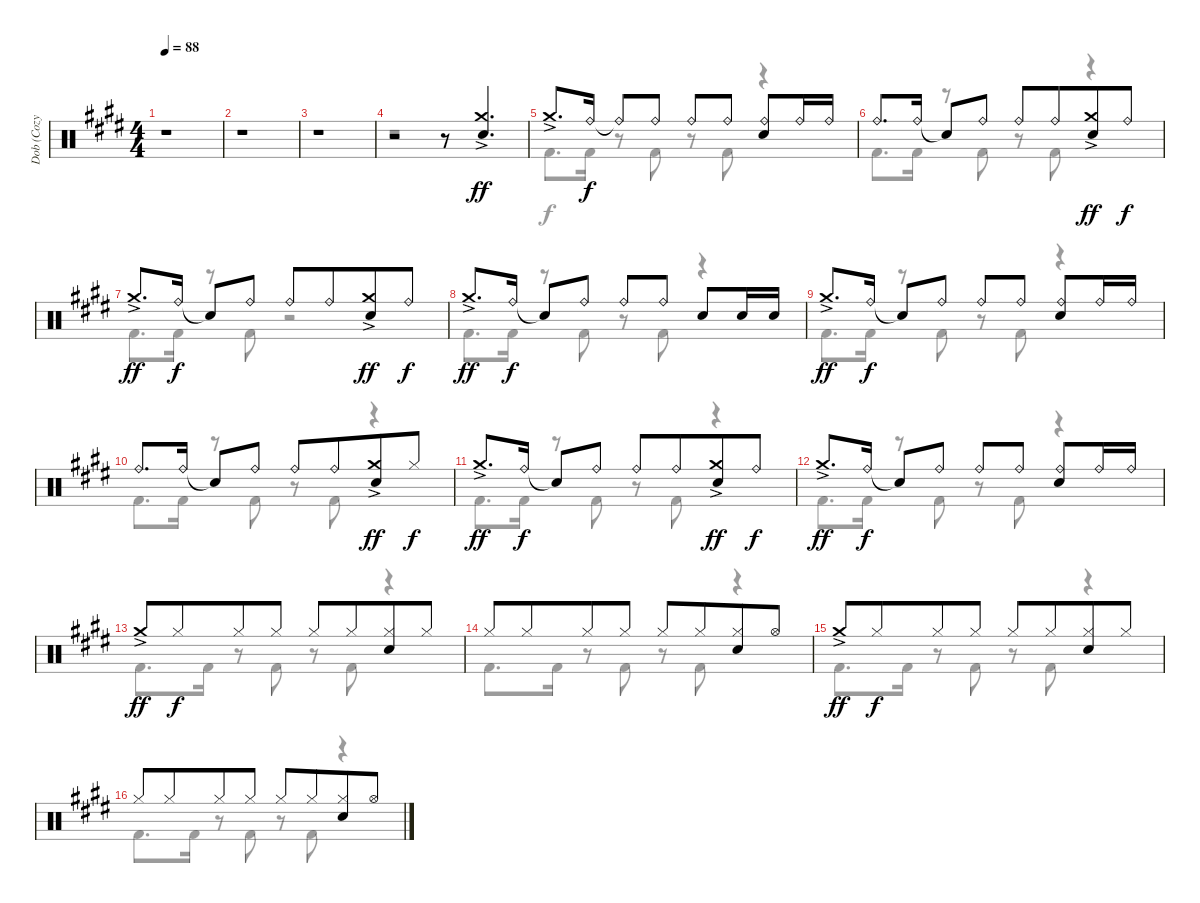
\track ("Dob (Cozy Powell)" "Dob (Cozy ") {instrument percussion}
\staff {score}
\articulation defaults
\voice
\ts (4 4)
\tempo 88
\clef neutral
\ks e
r.1{dy ff} |
r.1 |
r.1 |
r.2 r.8 ("Crash medium (hit)"{ac} "Electric Snare (hit)").4{d} |
"Crash medium (hit)"{ac}.8{d} "Ride (bell)".16{dy f} "Ride (bell)"{t}.8 "Ride (bell)".8 "Ride (bell)".8 "Ride (bell)".8 ("Ride (bell)" "Electric Snare (hit)").8 "Ride (bell)".16 "Ride (bell)".16 |
"Ride (bell)".8{d} "Ride (bell)".16 "Snare (hit)"{t}.8 "Ride (bell)".8 "Ride (bell)".8 "Ride (bell)".8{beam merge} ("Crash medium (hit)"{ac} "Electric Snare (hit)").8{dy ff} "Ride (bell)".8{dy f} |
"Crash medium (hit)"{ac}.8{d dy ff} "Ride (bell)".16{dy f} "Snare (hit)"{t}.8 "Ride (bell)".8 "Ride (bell)".8 "Ride (bell)".8{beam merge} ("Crash medium (hit)"{ac} "Electric Snare (hit)").8{dy ff} "Ride (bell)".8{dy f} |
"Crash medium (hit)"{ac}.8{d dy ff} "Ride (bell)".16{dy f} "Snare (hit)"{t}.8 "Ride (bell)".8 "Ride (bell)".8 "Ride (bell)".8 "Electric Snare (hit)".8 "Electric Snare (hit)".16 "Electric Snare (hit)".16 |
"Crash medium (hit)"{ac}.8{d dy ff} "Ride (bell)".16{dy f} "Snare (hit)"{t}.8 "Ride (bell)".8 "Ride (bell)".8 "Ride (bell)".8 ("Ride (bell)" "Electric Snare (hit)").8 "Ride (bell)".16 "Ride (bell)".16 |
"Ride (bell)".8{d} "Ride (bell)".16 "Snare (hit)"{t}.8 "Ride (bell)".8 "Ride (bell)".8 "Ride (bell)".8{beam merge} ("Crash medium (hit)"{ac} "Electric Snare (hit)").8{dy ff} "Hi-Hat (closed)".8{dy f} |
"Crash medium (hit)"{ac}.8{d dy ff} "Ride (bell)".16{dy f} "Snare (hit)"{t}.8 "Ride (bell)".8 "Ride (bell)".8 "Ride (bell)".8{beam merge} ("Crash medium (hit)"{ac} "Electric Snare (hit)").8{dy ff} "Ride (bell)".8{dy f} |
"Crash medium (hit)"{ac}.8{d dy ff} "Ride (bell)".16{dy f} "Snare (hit)"{t}.8 "Ride (bell)".8 "Ride (bell)".8 "Ride (bell)".8 ("Ride (bell)" "Electric Snare (hit)").8 "Ride (bell)".16 "Ride (bell)".16 |
"Crash medium (hit)"{ac}.8{dy ff} "Hi-Hat (closed)".8{dy f beam merge} "Hi-Hat (closed)".8 "Hi-Hat (closed)".8 "Hi-Hat (closed)".8 "Hi-Hat (closed)".8{beam merge} ("Hi-Hat (closed)" "Electric Snare (hit)").8 "Hi-Hat (closed)".8 |
"Hi-Hat (closed)".8 "Hi-Hat (closed)".8{beam merge} "Hi-Hat (closed)".8 "Hi-Hat (closed)".8 "Hi-Hat (closed)".8 "Hi-Hat (closed)".8{beam merge} ("Hi-Hat (closed)" "Electric Snare (hit)").8 "Hi-Hat (open)".8 |
"Crash medium (hit)"{ac}.8{dy ff} "Hi-Hat (closed)".8{dy f beam merge} "Hi-Hat (closed)".8 "Hi-Hat (closed)".8 "Hi-Hat (closed)".8 "Hi-Hat (closed)".8{beam merge} ("Hi-Hat (closed)" "Electric Snare (hit)").8 "Hi-Hat (closed)".8 |
"Hi-Hat (closed)".8 "Hi-Hat (closed)".8{beam merge} "Hi-Hat (closed)".8 "Hi-Hat (closed)".8 "Hi-Hat (closed)".8 "Hi-Hat (closed)".8{beam merge} ("Hi-Hat (closed)" "Electric Snare (hit)").8 "Hi-Hat (open)".8
\voice
\clef neutral
\ottava regular
\simile none
\ks e
r.1{dy f} |
r.1 |
r.1 |
r.1 |
"Kick (hit) 2".8{d} "Kick (hit) 2".16 r.8 "Kick (hit) 2".8 r.8 "Kick (hit) 2".8 r.4 |
"Kick (hit) 2".8{d} "Kick (hit) 2".16 r.8 "Kick (hit) 2".8 r.8 "Kick (hit) 2".8 r.4 |
"Kick (hit) 2".8{d} "Kick (hit) 2".16 r.8 "Kick (hit) 2".8 r.2 |
"Kick (hit) 2".8{d} "Kick (hit) 2".16 r.8 "Kick (hit) 2".8 r.8 "Kick (hit) 2".8 r.4 |
"Kick (hit) 2".8{d} "Kick (hit) 2".16 r.8 "Kick (hit) 2".8 r.8 "Kick (hit) 2".8 r.4 |
"Kick (hit) 2".8{d} "Kick (hit) 2".16 r.8 "Kick (hit) 2".8 r.8 "Kick (hit) 2".8 r.4 |
"Kick (hit) 2".8{d} "Kick (hit) 2".16 r.8 "Kick (hit) 2".8 r.8 "Kick (hit) 2".8 r.4 |
"Kick (hit) 2".8{d} "Kick (hit) 2".16 r.8 "Kick (hit) 2".8 r.8 "Kick (hit) 2".8 r.4 |
"Kick (hit) 2".8{d} "Kick (hit) 2".16 r.8 "Kick (hit) 2".8 r.8 "Kick (hit) 2".8 r.4 |
"Kick (hit) 2".8{d} "Kick (hit) 2".16 r.8 "Kick (hit) 2".8 r.8 "Kick (hit) 2".8 r.4 |
"Kick (hit) 2".8{d} "Kick (hit) 2".16 r.8 "Kick (hit) 2".8 r.8 "Kick (hit) 2".8 r.4 |
"Kick (hit) 2".8{d} "Kick (hit) 2".16 r.8 "Kick (hit) 2".8 r.8 "Kick (hit) 2".8 r.4
